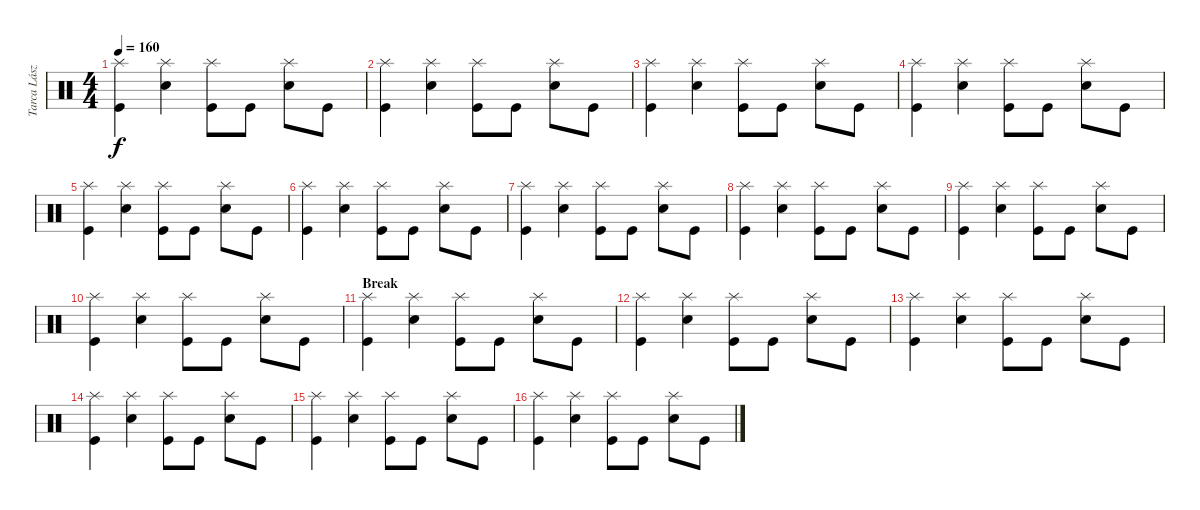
\track ("Tarca László" "Tarca Lász") {instrument percussion}
\staff {score}
\articulation defaults
\ts (4 4)
\tempo 160
\clef neutral
\ks c
("Splash (hit)" "Kick (hit)").4{dy f} ("Splash (hit)" "Electric Snare (hit)").4 ("Splash (hit)" "Kick (hit)").8 "Kick (hit)".8 ("Splash (hit)" "Electric Snare (hit)").8 "Kick (hit)".8 |
("Splash (hit)" "Kick (hit)").4 ("Splash (hit)" "Electric Snare (hit)").4 ("Splash (hit)" "Kick (hit)").8 "Kick (hit)".8 ("Splash (hit)" "Electric Snare (hit)").8 "Kick (hit)".8 |
("Splash (hit)" "Kick (hit)").4 ("Splash (hit)" "Electric Snare (hit)").4 ("Splash (hit)" "Kick (hit)").8 "Kick (hit)".8 ("Splash (hit)" "Electric Snare (hit)").8 "Kick (hit)".8 |
("Splash (hit)" "Kick (hit)").4 ("Splash (hit)" "Electric Snare (hit)").4 ("Splash (hit)" "Kick (hit)").8 "Kick (hit)".8 ("Splash (hit)" "Electric Snare (hit)").8 "Kick (hit)".8 |
("Splash (hit)" "Kick (hit)").4 ("Splash (hit)" "Electric Snare (hit)").4 ("Splash (hit)" "Kick (hit)").8 "Kick (hit)".8 ("Splash (hit)" "Electric Snare (hit)").8 "Kick (hit)".8 |
("Splash (hit)" "Kick (hit)").4 ("Splash (hit)" "Electric Snare (hit)").4 ("Splash (hit)" "Kick (hit)").8 "Kick (hit)".8 ("Splash (hit)" "Electric Snare (hit)").8 "Kick (hit)".8 |
("Splash (hit)" "Kick (hit)").4 ("Splash (hit)" "Electric Snare (hit)").4 ("Splash (hit)" "Kick (hit)").8 "Kick (hit)".8 ("Splash (hit)" "Electric Snare (hit)").8 "Kick (hit)".8 |
("Splash (hit)" "Kick (hit)").4 ("Splash (hit)" "Electric Snare (hit)").4 ("Splash (hit)" "Kick (hit)").8 "Kick (hit)".8 ("Splash (hit)" "Electric Snare (hit)").8 "Kick (hit)".8 |
("Splash (hit)" "Kick (hit)").4 ("Splash (hit)" "Electric Snare (hit)").4 ("Splash (hit)" "Kick (hit)").8 "Kick (hit)".8 ("Splash (hit)" "Electric Snare (hit)").8 "Kick (hit)".8 |
("Splash (hit)" "Kick (hit)").4 ("Splash (hit)" "Electric Snare (hit)").4 ("Splash (hit)" "Kick (hit)").8 "Kick (hit)".8 ("Splash (hit)" "Electric Snare (hit)").8 "Kick (hit)".8 |
\section ("" "Break")
("Splash (hit)" "Kick (hit)").4 ("Splash (hit)" "Electric Snare (hit)").4 ("Splash (hit)" "Kick (hit)").8 "Kick (hit)".8 ("Splash (hit)" "Electric Snare (hit)").8 "Kick (hit)".8 |
("Splash (hit)" "Kick (hit)").4 ("Splash (hit)" "Electric Snare (hit)").4 ("Splash (hit)" "Kick (hit)").8 "Kick (hit)".8 ("Splash (hit)" "Electric Snare (hit)").8 "Kick (hit)".8 |
("Splash (hit)" "Kick (hit)").4 ("Splash (hit)" "Electric Snare (hit)").4 ("Splash (hit)" "Kick (hit)").8 "Kick (hit)".8 ("Splash (hit)" "Electric Snare (hit)").8 "Kick (hit)".8 |
("Splash (hit)" "Kick (hit)").4 ("Splash (hit)" "Electric Snare (hit)").4 ("Splash (hit)" "Kick (hit)").8 "Kick (hit)".8 ("Splash (hit)" "Electric Snare (hit)").8 "Kick (hit)".8 |
("Splash (hit)" "Kick (hit)").4 ("Splash (hit)" "Electric Snare (hit)").4 ("Splash (hit)" "Kick (hit)").8 "Kick (hit)".8 ("Splash (hit)" "Electric Snare (hit)").8 "Kick (hit)".8 |
("Splash (hit)" "Kick (hit)").4 ("Splash (hit)" "Electric Snare (hit)").4 ("Splash (hit)" "Kick (hit)").8 "Kick (hit)".8 ("Splash (hit)" "Electric Snare (hit)").8 "Kick (hit)".8
